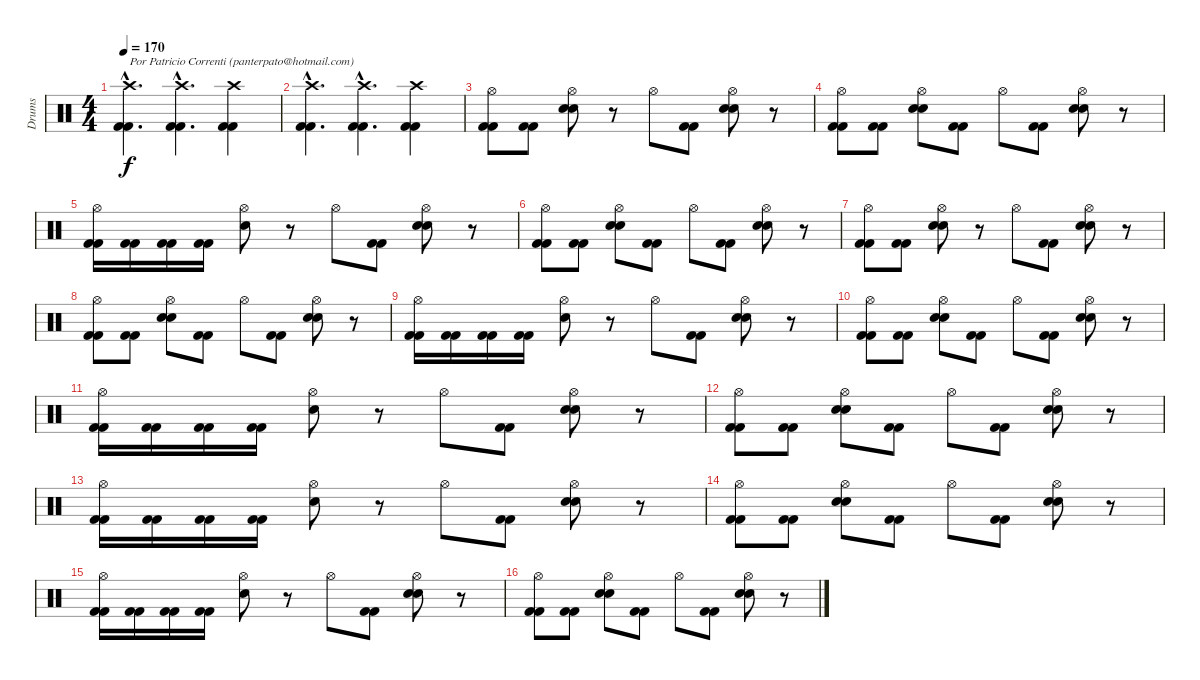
\track ("Drums" "Drums") {instrument percussion}
\staff {score}
\articulation defaults
\ts (4 4)
\tempo 170
\clef neutral
\ks c
("Crash high (hit)"{hac} "Kick (hit) 2"{hac} "Kick (hit) 2"{hac}).4{d txt "Por Patricio Correnti (panterpato@hotmail.com)" dy f} ("Crash high (hit)"{hac} "Kick (hit) 2"{hac} "Kick (hit) 2"{hac}).4{d} ("Crash high (hit)" "Kick (hit) 2" "Kick (hit) 2").4 |
("Crash high (hit)"{hac} "Kick (hit) 2"{hac} "Kick (hit) 2"{hac}).4{d} ("Crash high (hit)"{hac} "Kick (hit) 2"{hac} "Kick (hit) 2"{hac}).4{d} ("Crash high (hit)" "Kick (hit) 2" "Kick (hit) 2").4 |
("Hi-Hat (open)" "Kick (hit) 2" "Kick (hit) 2").8 ("Kick (hit) 2" "Kick (hit) 2").8 ("Hi-Hat (open)" "Electric Snare (hit)" "Electric Snare (hit)").8 r.8 "Hi-Hat (open)".8 ("Kick (hit) 2" "Kick (hit) 2").8 ("Hi-Hat (open)" "Electric Snare (hit)" "Electric Snare (hit)").8 r.8 |
("Hi-Hat (open)" "Kick (hit) 2" "Kick (hit) 2").8 ("Kick (hit) 2" "Kick (hit) 2").8 ("Hi-Hat (open)" "Electric Snare (hit)" "Electric Snare (hit)").8 ("Kick (hit) 2" "Kick (hit) 2").8 "Hi-Hat (open)".8 ("Kick (hit) 2" "Kick (hit) 2").8 ("Hi-Hat (open)" "Electric Snare (hit)" "Electric Snare (hit)").8 r.8 |
("Hi-Hat (open)" "Kick (hit) 2" "Kick (hit) 2").16 ("Kick (hit) 2" "Kick (hit) 2").16 ("Kick (hit) 2" "Kick (hit) 2").16 ("Kick (hit) 2" "Kick (hit) 2").16 ("Hi-Hat (open)" "Electric Snare (hit)").8 r.8 "Hi-Hat (open)".8 ("Kick (hit) 2" "Kick (hit) 2").8 ("Hi-Hat (open)" "Electric Snare (hit)" "Electric Snare (hit)").8 r.8 |
("Hi-Hat (open)" "Kick (hit) 2" "Kick (hit) 2").8 ("Kick (hit) 2" "Kick (hit) 2").8 ("Hi-Hat (open)" "Electric Snare (hit)" "Electric Snare (hit)").8 ("Kick (hit) 2" "Kick (hit) 2").8 "Hi-Hat (open)".8 ("Kick (hit) 2" "Kick (hit) 2").8 ("Hi-Hat (open)" "Electric Snare (hit)" "Electric Snare (hit)").8 r.8 |
("Hi-Hat (open)" "Kick (hit) 2" "Kick (hit) 2").8 ("Kick (hit) 2" "Kick (hit) 2").8 ("Hi-Hat (open)" "Electric Snare (hit)" "Electric Snare (hit)").8 r.8 "Hi-Hat (open)".8 ("Kick (hit) 2" "Kick (hit) 2").8 ("Hi-Hat (open)" "Electric Snare (hit)" "Electric Snare (hit)").8 r.8 |
("Hi-Hat (open)" "Kick (hit) 2" "Kick (hit) 2").8 ("Kick (hit) 2" "Kick (hit) 2").8 ("Hi-Hat (open)" "Electric Snare (hit)" "Electric Snare (hit)").8 ("Kick (hit) 2" "Kick (hit) 2").8 "Hi-Hat (open)".8 ("Kick (hit) 2" "Kick (hit) 2").8 ("Hi-Hat (open)" "Electric Snare (hit)" "Electric Snare (hit)").8 r.8 |
("Hi-Hat (open)" "Kick (hit) 2" "Kick (hit) 2").16 ("Kick (hit) 2" "Kick (hit) 2").16 ("Kick (hit) 2" "Kick (hit) 2").16 ("Kick (hit) 2" "Kick (hit) 2").16 ("Hi-Hat (open)" "Electric Snare (hit)").8 r.8 "Hi-Hat (open)".8 ("Kick (hit) 2" "Kick (hit) 2").8 ("Hi-Hat (open)" "Electric Snare (hit)" "Electric Snare (hit)").8 r.8 |
("Hi-Hat (open)" "Kick (hit) 2" "Kick (hit) 2").8 ("Kick (hit) 2" "Kick (hit) 2").8 ("Hi-Hat (open)" "Electric Snare (hit)" "Electric Snare (hit)").8 ("Kick (hit) 2" "Kick (hit) 2").8 "Hi-Hat (open)".8 ("Kick (hit) 2" "Kick (hit) 2").8 ("Hi-Hat (open)" "Electric Snare (hit)" "Electric Snare (hit)").8 r.8 |
("Hi-Hat (open)" "Kick (hit) 2" "Kick (hit) 2").16 ("Kick (hit) 2" "Kick (hit) 2").16 ("Kick (hit) 2" "Kick (hit) 2").16 ("Kick (hit) 2" "Kick (hit) 2").16 ("Hi-Hat (open)" "Electric Snare (hit)").8 r.8 "Hi-Hat (open)".8 ("Kick (hit) 2" "Kick (hit) 2").8 ("Hi-Hat (open)" "Electric Snare (hit)" "Electric Snare (hit)").8 r.8 |
("Hi-Hat (open)" "Kick (hit) 2" "Kick (hit) 2").8 ("Kick (hit) 2" "Kick (hit) 2").8 ("Hi-Hat (open)" "Electric Snare (hit)" "Electric Snare (hit)").8 ("Kick (hit) 2" "Kick (hit) 2").8 "Hi-Hat (open)".8 ("Kick (hit) 2" "Kick (hit) 2").8 ("Hi-Hat (open)" "Electric Snare (hit)" "Electric Snare (hit)").8 r.8 |
("Hi-Hat (open)" "Kick (hit) 2" "Kick (hit) 2").16 ("Kick (hit) 2" "Kick (hit) 2").16 ("Kick (hit) 2" "Kick (hit) 2").16 ("Kick (hit) 2" "Kick (hit) 2").16 ("Hi-Hat (open)" "Electric Snare (hit)").8 r.8 "Hi-Hat (open)".8 ("Kick (hit) 2" "Kick (hit) 2").8 ("Hi-Hat (open)" "Electric Snare (hit)" "Electric Snare (hit)").8 r.8 |
("Hi-Hat (open)" "Kick (hit) 2" "Kick (hit) 2").8 ("Kick (hit) 2" "Kick (hit) 2").8 ("Hi-Hat (open)" "Electric Snare (hit)" "Electric Snare (hit)").8 ("Kick (hit) 2" "Kick (hit) 2").8 "Hi-Hat (open)".8 ("Kick (hit) 2" "Kick (hit) 2").8 ("Hi-Hat (open)" "Electric Snare (hit)" "Electric Snare (hit)").8 r.8 |
("Hi-Hat (open)" "Kick (hit) 2" "Kick (hit) 2").16 ("Kick (hit) 2" "Kick (hit) 2").16 ("Kick (hit) 2" "Kick (hit) 2").16 ("Kick (hit) 2" "Kick (hit) 2").16 ("Hi-Hat (open)" "Electric Snare (hit)").8 r.8 "Hi-Hat (open)".8 ("Kick (hit) 2" "Kick (hit) 2").8 ("Hi-Hat (open)" "Electric Snare (hit)" "Electric Snare (hit)").8 r.8 |
("Hi-Hat (open)" "Kick (hit) 2" "Kick (hit) 2").8 ("Kick (hit) 2" "Kick (hit) 2").8 ("Hi-Hat (open)" "Electric Snare (hit)" "Electric Snare (hit)").8 ("Kick (hit) 2" "Kick (hit) 2").8 "Hi-Hat (open)".8 ("Kick (hit) 2" "Kick (hit) 2").8 ("Hi-Hat (open)" "Electric Snare (hit)" "Electric Snare (hit)").8 r.8
